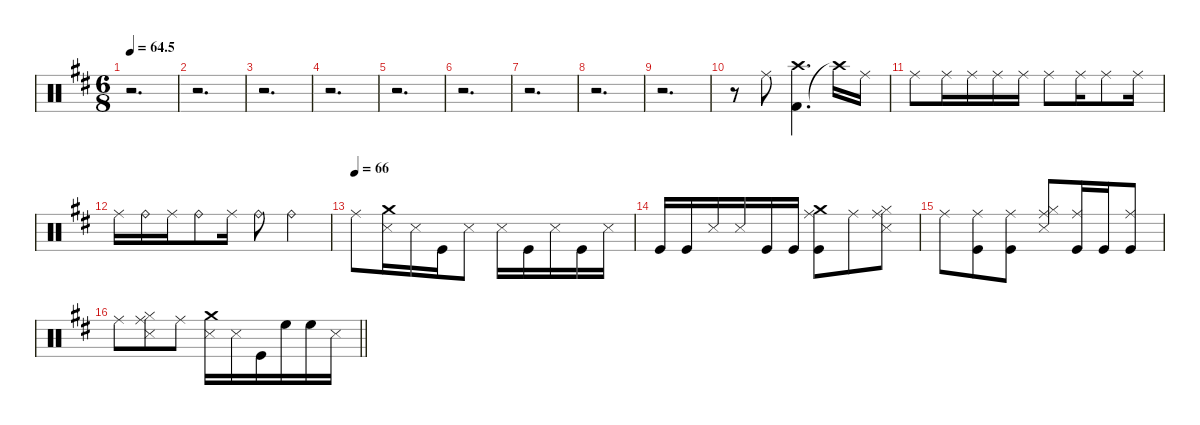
\defaultSystemsLayout 4
\hideDynamics
\bracketExtendMode groupsimilarinstruments
\singleTrackTrackNamePolicy hidden
\multiTrackTrackNamePolicy hidden
\firstSystemTrackNameMode fullname
\firstSystemTrackNameOrientation horizontal
\otherSystemsTrackNameOrientation horizontal
\track ("Drumkit" "drm.") {defaultSystemsLayout 4 instrument percussion}
\staff {score}
\articulation defaults
\ts (6 8)
\beaming (8 3 3)
\tempo
64.5
\accidentals auto
\clef neutral
\ottava regular
\simile none
\ks bminor
r.2{d dy mf beam Down} |
r.2{d beam Down} |
r.2{d beam Down} |
r.2{d beam Down} |
r.2{d beam Down} |
r.2{d beam Down} |
r.2{d beam Down} |
r.2{d beam Down} |
r.2{d beam Down} |
r.8{beam Down} "Ride (middle)"{acc forcenatural}.8{beam Down} ("Kick (hit) 2"{acc forcenatural} "Crash high (hit)"{acc forcenatural}).4{d beam Down} "Crash high (hit)"{t acc forcenatural}.16{beam Down} "Ride (middle)"{acc forcenatural}.16{beam Down} |
"Ride (middle)"{acc forcenatural}.8{beam Down} "Ride (middle)"{acc forcenatural}.16{beam Down} "Ride (middle)"{acc forcenatural}.16{beam Down} "Ride (middle)"{acc forcenatural}.16{beam Down} "Ride (middle)"{acc forcenatural}.16{beam Down} "Ride (middle)"{acc forcenatural}.8{beam Down} "Ride (middle)"{acc forcenatural}.16{beam Down} "Ride (middle)"{acc forcenatural}.8{beam Down} "Ride (middle)"{acc forcenatural}.16{beam Down} |
"Ride (middle)"{acc forcenatural}.16{beam Down} "Ride (bell)"{acc forcenatural}.16{beam Down} "Ride (middle)"{acc forcenatural}.16{beam Down} "Ride (bell)"{acc forcenatural}.8{beam Down} "Ride (middle)"{acc forcenatural}.16{beam Down} "Ride (bell)"{acc forcenatural}.8{beam Down} "Ride (bell)"{acc forcenatural}.4{beam Down} |
\tempo (66)
"Ride (middle)"{acc forcenatural}.8{dy f beam Down} ("Snare (side stick) 3"{acc forcenatural} "Crash medium (hit)"{acc forcenatural}).16{dy mp beam Down} "Snare (side stick) 3"{acc forcenatural}.16{dy pp beam Down} "Kick (hit)"{acc forcenatural}.16{dy f beam Down} "Snare (side stick) 3"{acc forcenatural}.8{beam Down} "Snare (side stick) 3"{acc forcenatural}.16{dy p beam Down} "Kick (hit)"{acc forcenatural}.16{dy f beam Down} "Snare (side stick) 3"{acc forcenatural}.16{dy mp beam Down} "Kick (hit)"{acc forcenatural}.16{dy f beam Down} "Snare (side stick) 3"{acc forcenatural}.16{dy mf beam Down} |
"Kick (hit)"{acc forcenatural}.16{dy f beam Up} "Kick (hit)"{acc forcenatural}.16{beam Up} "Snare (side stick) 3"{acc forcenatural}.16{dy fff beam Up} "Snare (side stick) 3"{acc forcenatural}.16{dy mf beam Up} "Kick (hit)"{acc forcenatural}.16{dy f beam Up} "Kick (hit)"{acc forcenatural}.16{beam Up} ("Crash medium (hit)"{acc forcenatural} "Kick (hit)"{acc forcenatural} "Ride (middle)"{acc #}).8{dy fff beam Down} "Ride (middle)"{acc #}.8{dy f beam Down} ("Snare (side stick) 3"{acc forcenatural} "Hi-Hat (closed)"{acc #} "Ride (middle)"{acc #}).8{dy fff beam Down} |
"Ride (middle)"{acc #}.8{dy f beam Down} ("Kick (hit)"{acc forcenatural} "Ride (middle)"{acc #}).8{dy fff beam Down} ("Kick (hit)"{acc forcenatural} "Ride (middle)"{acc #}).8{dy f beam Down} ("Snare (side stick) 3"{acc forcenatural} "Hi-Hat (closed)"{acc #} "Ride (middle)"{acc #}).8{dy fff beam Up} ("Kick (hit)"{acc forcenatural} "Ride (middle)"{acc #}).16{dy mp beam Up} "Kick (hit)"{acc forcenatural}.16{dy mf beam Up} ("Kick (hit)"{acc forcenatural} "Ride (middle)"{acc #}).8{dy fff beam Up} |
\barLineRight lightlight "Ride (middle)"{acc #}.8{dy f beam Down}
("Snare (side stick) 3"{acc forcenatural} "Hi-Hat (closed)"{acc #} "Ride (middle)"{acc #}).8{dy fff beam Down} "Ride (middle)"{acc #}.8{beam Down} ("Snare (side stick) 3"{acc forcenatural} "Crash medium (hit)"{acc forcenatural}).16{beam Down} "Snare (side stick) 3"{acc forcenatural}.16{dy p beam Down} "Kick (hit)"{acc forcenatural}.16{dy f beam Down} "High Floor Tom (hit)"{acc forcenatural}.16{dy mf beam Down} "High Floor Tom (hit)"{acc forcenatural}.16{dy fff beam Down} "Snare (side stick) 3"{acc forcenatural}.16{dy pp beam Down}
